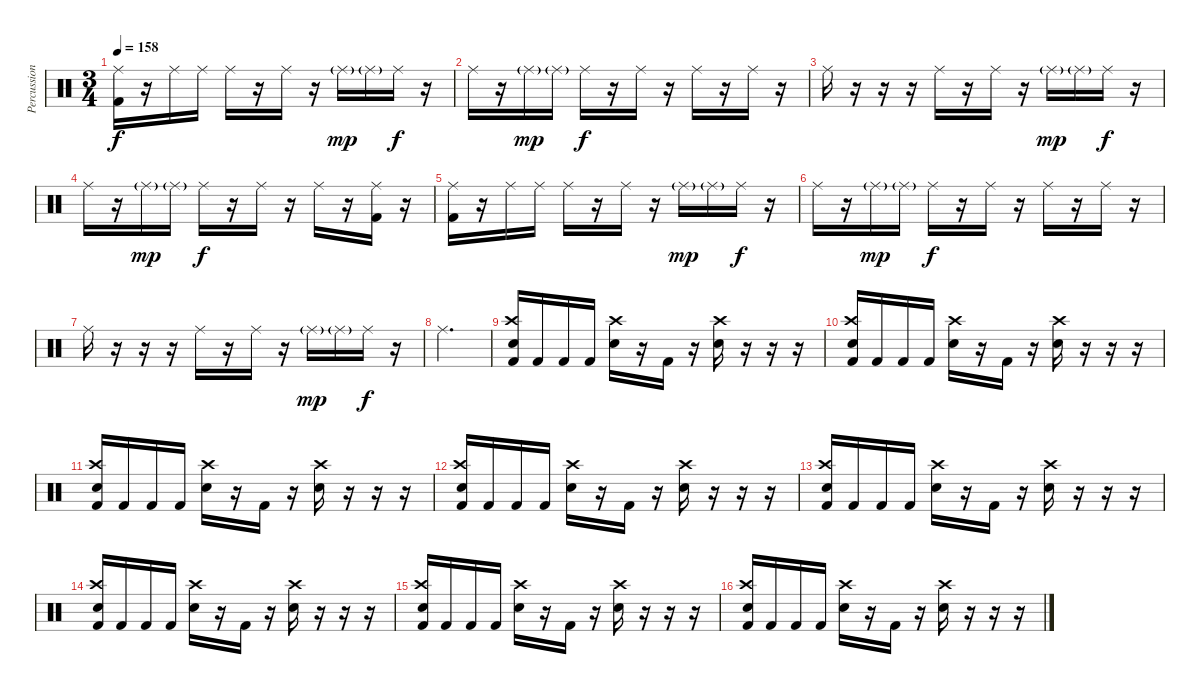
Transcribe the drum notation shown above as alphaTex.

\track ("Percussion" "Percussion") {instrument percussion}
\staff {score}
\articulation defaults
\ts (3 4)
\tempo 158
\clef neutral
\ks c
("Ride (middle)" "Kick (hit) 2").16{dy f} r.16 "Ride (middle)".16 "Ride (middle)".16 "Ride (middle)".16 r.16 "Ride (middle)".16 r.16 "Ride (middle)"{g}.16{dy mp} "Ride (middle)"{g}.16 "Ride (middle)".16{dy f} r.16 |
"Ride (middle)".16 r.16 "Ride (middle)"{g}.16{dy mp} "Ride (middle)"{g}.16 "Ride (middle)".16{dy f} r.16 "Ride (middle)".16 r.16 "Ride (middle)".16 r.16 "Ride (middle)".16 r.16 |
"Ride (middle)".16 r.16 r.16 r.16 "Ride (middle)".16 r.16 "Ride (middle)".16 r.16 "Ride (middle)"{g}.16{dy mp} "Ride (middle)"{g}.16 "Ride (middle)".16{dy f} r.16 |
"Ride (middle)".16 r.16 "Ride (middle)"{g}.16{dy mp} "Ride (middle)"{g}.16 "Ride (middle)".16{dy f} r.16 "Ride (middle)".16 r.16 "Ride (middle)".16 r.16 ("Ride (middle)" "Kick (hit) 2").16 r.16 |
("Ride (middle)" "Kick (hit) 2").16 r.16 "Ride (middle)".16 "Ride (middle)".16 "Ride (middle)".16 r.16 "Ride (middle)".16 r.16 "Ride (middle)"{g}.16{dy mp} "Ride (middle)"{g}.16 "Ride (middle)".16{dy f} r.16 |
"Ride (middle)".16 r.16 "Ride (middle)"{g}.16{dy mp} "Ride (middle)"{g}.16 "Ride (middle)".16{dy f} r.16 "Ride (middle)".16 r.16 "Ride (middle)".16 r.16 "Ride (middle)".16 r.16 |
"Ride (middle)".16 r.16 r.16 r.16 "Ride (middle)".16 r.16 "Ride (middle)".16 r.16 "Ride (middle)"{g}.16{dy mp} "Ride (middle)"{g}.16 "Ride (middle)".16{dy f} r.16 |
"Ride (middle)".2{d} |
("Crash high (hit)" "Electric Snare (hit)" "Kick (hit) 2").16 "Kick (hit) 2".16 "Kick (hit) 2".16 "Kick (hit) 2".16 ("Crash high (hit)" "Electric Snare (hit)").16 r.16 "Kick (hit) 2".16 r.16 ("Crash high (hit)" "Electric Snare (hit)").16 r.16 r.16 r.16 |
("Crash high (hit)" "Electric Snare (hit)" "Kick (hit) 2").16 "Kick (hit) 2".16 "Kick (hit) 2".16 "Kick (hit) 2".16 ("Crash high (hit)" "Electric Snare (hit)").16 r.16 "Kick (hit) 2".16 r.16 ("Crash high (hit)" "Electric Snare (hit)").16 r.16 r.16 r.16 |
("Crash high (hit)" "Electric Snare (hit)" "Kick (hit) 2").16 "Kick (hit) 2".16 "Kick (hit) 2".16 "Kick (hit) 2".16 ("Crash high (hit)" "Electric Snare (hit)").16 r.16 "Kick (hit) 2".16 r.16 ("Crash high (hit)" "Electric Snare (hit)").16 r.16 r.16 r.16 |
("Crash high (hit)" "Electric Snare (hit)" "Kick (hit) 2").16 "Kick (hit) 2".16 "Kick (hit) 2".16 "Kick (hit) 2".16 ("Crash high (hit)" "Electric Snare (hit)").16 r.16 "Kick (hit) 2".16 r.16 ("Crash high (hit)" "Electric Snare (hit)").16 r.16 r.16 r.16 |
("Crash high (hit)" "Electric Snare (hit)" "Kick (hit) 2").16 "Kick (hit) 2".16 "Kick (hit) 2".16 "Kick (hit) 2".16 ("Crash high (hit)" "Electric Snare (hit)").16 r.16 "Kick (hit) 2".16 r.16 ("Crash high (hit)" "Electric Snare (hit)").16 r.16 r.16 r.16 |
("Crash high (hit)" "Electric Snare (hit)" "Kick (hit) 2").16 "Kick (hit) 2".16 "Kick (hit) 2".16 "Kick (hit) 2".16 ("Crash high (hit)" "Electric Snare (hit)").16 r.16 "Kick (hit) 2".16 r.16 ("Crash high (hit)" "Electric Snare (hit)").16 r.16 r.16 r.16 |
("Crash high (hit)" "Electric Snare (hit)" "Kick (hit) 2").16 "Kick (hit) 2".16 "Kick (hit) 2".16 "Kick (hit) 2".16 ("Crash high (hit)" "Electric Snare (hit)").16 r.16 "Kick (hit) 2".16 r.16 ("Crash high (hit)" "Electric Snare (hit)").16 r.16 r.16 r.16 |
("Crash high (hit)" "Electric Snare (hit)" "Kick (hit) 2").16 "Kick (hit) 2".16 "Kick (hit) 2".16 "Kick (hit) 2".16 ("Crash high (hit)" "Electric Snare (hit)").16 r.16 "Kick (hit) 2".16 r.16 ("Crash high (hit)" "Electric Snare (hit)").16 r.16 r.16 r.16
